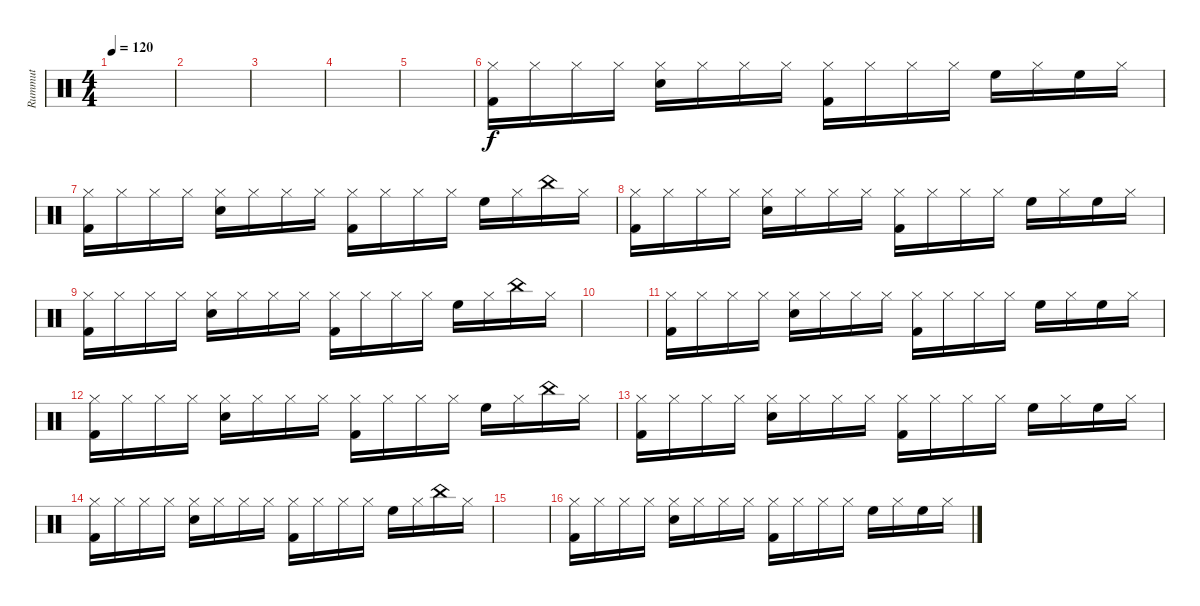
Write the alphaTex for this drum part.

\track ("Rummut" "Rummut") {instrument percussion}
\staff {score}
\articulation defaults
\ts (4 4)
\tempo 120
\clef neutral
\ks c
|
|
|
|
|
("Hi-Hat (closed)" "Kick (hit) 2").16 "Hi-Hat (closed)".16 "Hi-Hat (closed)".16 "Hi-Hat (closed)".16 ("Hi-Hat (closed)" "Snare (hit) 2").16 "Hi-Hat (closed)".16 "Hi-Hat (closed)".16 "Hi-Hat (closed)".16 ("Hi-Hat (closed)" "Kick (hit) 2").16 "Hi-Hat (closed)".16 "Hi-Hat (closed)".16 "Hi-Hat (closed)".16 "High Floor Tom (hit)".16 "Hi-Hat (closed)".16 "High Floor Tom (hit)".16 "Hi-Hat (closed)".16 |
("Hi-Hat (closed)" "Kick (hit) 2").16 "Hi-Hat (closed)".16 "Hi-Hat (closed)".16 "Hi-Hat (closed)".16 ("Hi-Hat (closed)" "Snare (hit) 2").16 "Hi-Hat (closed)".16 "Hi-Hat (closed)".16 "Hi-Hat (closed)".16 ("Hi-Hat (closed)" "Kick (hit) 2").16 "Hi-Hat (closed)".16 "Hi-Hat (closed)".16 "Hi-Hat (closed)".16 "High Floor Tom (hit)".16 "Hi-Hat (closed)".16 "China (hit)".16 "Hi-Hat (closed)".16 |
("Hi-Hat (closed)" "Kick (hit) 2").16 "Hi-Hat (closed)".16 "Hi-Hat (closed)".16 "Hi-Hat (closed)".16 ("Hi-Hat (closed)" "Snare (hit) 2").16 "Hi-Hat (closed)".16 "Hi-Hat (closed)".16 "Hi-Hat (closed)".16 ("Hi-Hat (closed)" "Kick (hit) 2").16 "Hi-Hat (closed)".16 "Hi-Hat (closed)".16 "Hi-Hat (closed)".16 "High Floor Tom (hit)".16 "Hi-Hat (closed)".16 "High Floor Tom (hit)".16 "Hi-Hat (closed)".16 |
("Hi-Hat (closed)" "Kick (hit) 2").16 "Hi-Hat (closed)".16 "Hi-Hat (closed)".16 "Hi-Hat (closed)".16 ("Hi-Hat (closed)" "Snare (hit) 2").16 "Hi-Hat (closed)".16 "Hi-Hat (closed)".16 "Hi-Hat (closed)".16 ("Hi-Hat (closed)" "Kick (hit) 2").16 "Hi-Hat (closed)".16 "Hi-Hat (closed)".16 "Hi-Hat (closed)".16 "High Floor Tom (hit)".16 "Hi-Hat (closed)".16 "China (hit)".16 "Hi-Hat (closed)".16 |
|
("Hi-Hat (closed)" "Kick (hit) 2").16 "Hi-Hat (closed)".16 "Hi-Hat (closed)".16 "Hi-Hat (closed)".16 ("Hi-Hat (closed)" "Snare (hit) 2").16 "Hi-Hat (closed)".16 "Hi-Hat (closed)".16 "Hi-Hat (closed)".16 ("Hi-Hat (closed)" "Kick (hit) 2").16 "Hi-Hat (closed)".16 "Hi-Hat (closed)".16 "Hi-Hat (closed)".16 "High Floor Tom (hit)".16 "Hi-Hat (closed)".16 "High Floor Tom (hit)".16 "Hi-Hat (closed)".16 |
("Hi-Hat (closed)" "Kick (hit) 2").16 "Hi-Hat (closed)".16 "Hi-Hat (closed)".16 "Hi-Hat (closed)".16 ("Hi-Hat (closed)" "Snare (hit) 2").16 "Hi-Hat (closed)".16 "Hi-Hat (closed)".16 "Hi-Hat (closed)".16 ("Hi-Hat (closed)" "Kick (hit) 2").16 "Hi-Hat (closed)".16 "Hi-Hat (closed)".16 "Hi-Hat (closed)".16 "High Floor Tom (hit)".16 "Hi-Hat (closed)".16 "China (hit)".16 "Hi-Hat (closed)".16 |
("Hi-Hat (closed)" "Kick (hit) 2").16 "Hi-Hat (closed)".16 "Hi-Hat (closed)".16 "Hi-Hat (closed)".16 ("Hi-Hat (closed)" "Snare (hit) 2").16 "Hi-Hat (closed)".16 "Hi-Hat (closed)".16 "Hi-Hat (closed)".16 ("Hi-Hat (closed)" "Kick (hit) 2").16 "Hi-Hat (closed)".16 "Hi-Hat (closed)".16 "Hi-Hat (closed)".16 "High Floor Tom (hit)".16 "Hi-Hat (closed)".16 "High Floor Tom (hit)".16 "Hi-Hat (closed)".16 |
("Hi-Hat (closed)" "Kick (hit) 2").16 "Hi-Hat (closed)".16 "Hi-Hat (closed)".16 "Hi-Hat (closed)".16 ("Hi-Hat (closed)" "Snare (hit) 2").16 "Hi-Hat (closed)".16 "Hi-Hat (closed)".16 "Hi-Hat (closed)".16 ("Hi-Hat (closed)" "Kick (hit) 2").16 "Hi-Hat (closed)".16 "Hi-Hat (closed)".16 "Hi-Hat (closed)".16 "High Floor Tom (hit)".16 "Hi-Hat (closed)".16 "China (hit)".16 "Hi-Hat (closed)".16 |
|
("Hi-Hat (closed)" "Kick (hit) 2").16 "Hi-Hat (closed)".16 "Hi-Hat (closed)".16 "Hi-Hat (closed)".16 ("Hi-Hat (closed)" "Snare (hit) 2").16 "Hi-Hat (closed)".16 "Hi-Hat (closed)".16 "Hi-Hat (closed)".16 ("Hi-Hat (closed)" "Kick (hit) 2").16 "Hi-Hat (closed)".16 "Hi-Hat (closed)".16 "Hi-Hat (closed)".16 "High Floor Tom (hit)".16 "Hi-Hat (closed)".16 "High Floor Tom (hit)".16 "Hi-Hat (closed)".16
